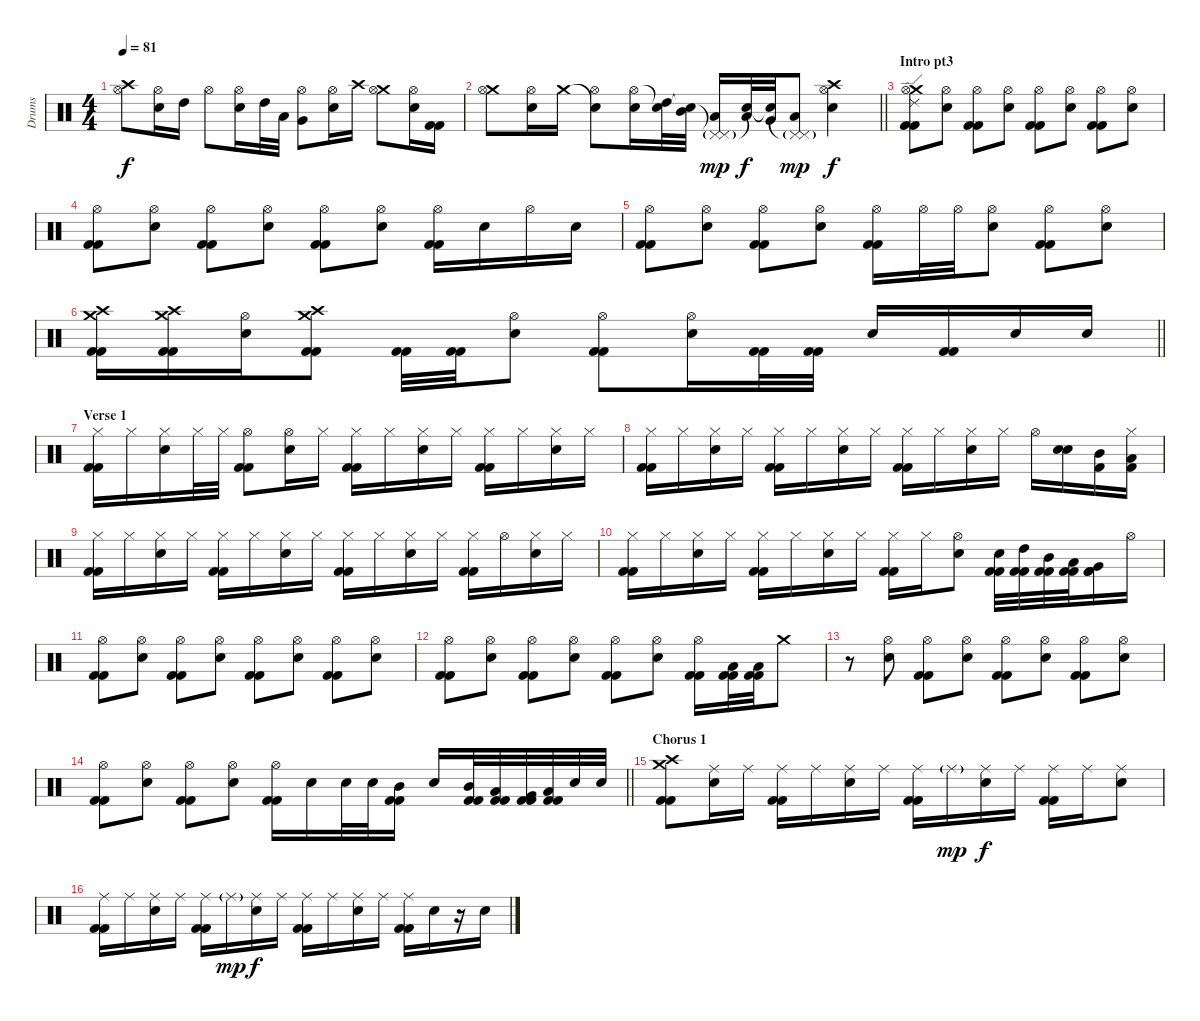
\track ("Drums" "Drums") {instrument percussion}
\staff {score}
\articulation defaults
\ts (4 4)
\tempo 81
\clef neutral
\ks c
("Crash high (hit)" "Hi-Hat (open)").8{dy f} ("Hi-Hat (open)" "Electric Snare (hit)").16 "High Tom (hit)".16 "Hi-Hat (open)".8 ("Hi-Hat (open)" "Electric Snare (hit)").16 "High Tom (hit)".32 "Low Tom (hit)".32 ("Hi-Hat (open)" "Very Low Tom (hit)").8 ("Hi-Hat (open)" "Electric Snare (hit)").16 "Crash high (hit)".16 ("Crash medium (hit)" "Hi-Hat (open)").8 ("Hi-Hat (open)" "Electric Snare (hit)").16 ("Kick (hit) 2" "Kick (hit) 2").16 |
\barLineRight lightlight
("Crash medium (hit)" "Hi-Hat (open)").8 ("Hi-Hat (open)" "Electric Snare (hit)").16 "Crash medium (hit)".16 ("Snare (hit)"{t} "Hi-Hat (open)").8 ("Hi-Hat (open)" "Electric Snare (hit)").16 ("Snare (hit)"{t} "High Tom (hit)").32 ("Snare (hit)"{t} "Mid Tom (hit)").32 ("Pedal Hi-Hat (hit)"{t} "Pedal Hi-Hat (hit)"{g} "Low Tom (hit)").16{dy mp} ("Snare (hit)"{t} "Low Tom (hit)").32{dy f} ("Snare (hit)"{t} "Very Low Tom (hit)").32 ("Pedal Hi-Hat (hit)"{t} "Pedal Hi-Hat (hit)"{g} "Low Floor Tom (hit)").8{dy mp} ("Hi-Hat (open)" "Crash high (hit)" "Electric Snare (hit)").4{dy f} |
\section ("" "Intro pt3")
("Crash medium (hit)" "Ride (edge) 2" "Hi-Hat (open)" "Kick (hit) 2" "Kick (hit) 2").8 ("Hi-Hat (open)" "Electric Snare (hit)").8 ("Hi-Hat (open)" "Kick (hit) 2" "Kick (hit) 2").8 ("Hi-Hat (open)" "Electric Snare (hit)").8 ("Hi-Hat (open)" "Kick (hit) 2" "Kick (hit) 2").8 ("Hi-Hat (open)" "Electric Snare (hit)").8 ("Hi-Hat (open)" "Kick (hit) 2" "Kick (hit) 2").8 ("Hi-Hat (open)" "Electric Snare (hit)").8 |
("Hi-Hat (open)" "Kick (hit) 2" "Kick (hit) 2").8 ("Hi-Hat (open)" "Electric Snare (hit)").8 ("Hi-Hat (open)" "Kick (hit) 2" "Kick (hit) 2").8 ("Hi-Hat (open)" "Electric Snare (hit)").8 ("Hi-Hat (open)" "Kick (hit) 2" "Kick (hit) 2").8 ("Hi-Hat (open)" "Electric Snare (hit)").8 ("Hi-Hat (open)" "Kick (hit) 2" "Kick (hit) 2").16 "Electric Snare (hit)".16 "Hi-Hat (open)".16 "Electric Snare (hit)".16 |
("Hi-Hat (open)" "Kick (hit) 2" "Kick (hit) 2").8 ("Hi-Hat (open)" "Electric Snare (hit)").8 ("Hi-Hat (open)" "Kick (hit) 2" "Kick (hit) 2").8 ("Hi-Hat (open)" "Electric Snare (hit)").8 ("Hi-Hat (open)" "Kick (hit) 2" "Kick (hit) 2").16 "Hi-Hat (open)".32 "Hi-Hat (open)".32 ("Hi-Hat (open)" "Electric Snare (hit)").8 ("Hi-Hat (open)" "Kick (hit) 2" "Kick (hit) 2").8 ("Hi-Hat (open)" "Electric Snare (hit)").8 |
\barLineRight lightlight
("Crash medium (hit)" "Crash high (hit)" "Kick (hit) 2" "Kick (hit) 2").16 ("Crash medium (hit)" "Crash high (hit)" "Kick (hit) 2" "Kick (hit) 2").16 ("Hi-Hat (open)" "Electric Snare (hit)").16 ("Crash medium (hit)" "Crash high (hit)" "Kick (hit) 2" "Kick (hit) 2").8 ("Kick (hit) 2" "Kick (hit) 2").32 ("Kick (hit) 2" "Kick (hit) 2").32 ("Hi-Hat (open)" "Electric Snare (hit)").8 ("Hi-Hat (open)" "Kick (hit) 2" "Kick (hit) 2").8 ("Hi-Hat (open)" "Electric Snare (hit)").16 ("Kick (hit) 2" "Kick (hit) 2").32 ("Kick (hit) 2" "Kick (hit) 2").32 "Electric Snare (hit)".16 ("Kick (hit) 2" "Kick (hit) 2").16 "Electric Snare (hit)".16 "Electric Snare (hit)".16 |
\section ("" "Verse 1")
("Hi-Hat (closed)" "Kick (hit) 2" "Kick (hit) 2").16 "Hi-Hat (closed)".16 ("Hi-Hat (closed)" "Electric Snare (hit)").16 "Hi-Hat (closed)".32 "Hi-Hat (closed)".32 ("Hi-Hat (open)" "Kick (hit) 2" "Kick (hit) 2").8 ("Hi-Hat (open)" "Electric Snare (hit)").16 "Hi-Hat (closed)".16 ("Hi-Hat (closed)" "Kick (hit) 2" "Kick (hit) 2").16 "Hi-Hat (closed)".16 ("Hi-Hat (closed)" "Electric Snare (hit)").16 "Hi-Hat (closed)".16 ("Hi-Hat (closed)" "Kick (hit) 2" "Kick (hit) 2").16 "Hi-Hat (closed)".16 ("Hi-Hat (closed)" "Electric Snare (hit)").16 "Hi-Hat (closed)".16 |
("Hi-Hat (closed)" "Kick (hit) 2" "Kick (hit) 2").16 "Hi-Hat (closed)".16 ("Hi-Hat (closed)" "Electric Snare (hit)").16 "Hi-Hat (closed)".16 ("Hi-Hat (closed)" "Kick (hit) 2" "Kick (hit) 2").16 "Hi-Hat (closed)".16 ("Hi-Hat (closed)" "Electric Snare (hit)").16 "Hi-Hat (closed)".16 ("Hi-Hat (closed)" "Kick (hit) 2" "Kick (hit) 2").16 "Hi-Hat (closed)".16 ("Hi-Hat (closed)" "Electric Snare (hit)").16 "Hi-Hat (closed)".16 "Hi-Hat (open)".16 ("Electric Snare (hit)" "Electric Snare (hit)").16 ("Mid Tom (hit)" "Kick (hit) 2").16 ("Low Tom (hit)" "Hi-Hat (closed)" "Kick (hit) 2").16 |
("Hi-Hat (closed)" "Kick (hit) 2" "Kick (hit) 2").16 "Hi-Hat (closed)".16 ("Hi-Hat (closed)" "Electric Snare (hit)").16 "Hi-Hat (closed)".16 ("Hi-Hat (closed)" "Kick (hit) 2" "Kick (hit) 2").16 "Hi-Hat (closed)".16 ("Hi-Hat (closed)" "Electric Snare (hit)").16 "Hi-Hat (closed)".16 ("Hi-Hat (closed)" "Kick (hit) 2" "Kick (hit) 2").16 "Hi-Hat (closed)".16 ("Hi-Hat (closed)" "Electric Snare (hit)").16 "Hi-Hat (closed)".16 ("Hi-Hat (closed)" "Kick (hit) 2" "Kick (hit) 2").16 "Hi-Hat (open)".16 ("Hi-Hat (closed)" "Electric Snare (hit)").16 "Hi-Hat (closed)".16 |
("Hi-Hat (closed)" "Kick (hit) 2" "Kick (hit) 2").16 "Hi-Hat (closed)".16 ("Hi-Hat (closed)" "Electric Snare (hit)").16 "Hi-Hat (closed)".16 ("Hi-Hat (closed)" "Kick (hit) 2" "Kick (hit) 2").16 "Hi-Hat (closed)".16 ("Hi-Hat (closed)" "Electric Snare (hit)").16 "Hi-Hat (closed)".16 ("Hi-Hat (closed)" "Kick (hit) 2" "Kick (hit) 2").16 "Hi-Hat (closed)".16 ("Hi-Hat (open)" "Electric Snare (hit)").8 ("Electric Snare (hit)" "Kick (hit) 2" "Kick (hit) 2").32 ("High Tom (hit)" "Kick (hit) 2" "Kick (hit) 2").32 ("Mid Tom (hit)" "Kick (hit) 2" "Kick (hit) 2").32 ("Low Tom (hit)" "Kick (hit) 2" "Kick (hit) 2").32 ("Very Low Tom (hit)" "Kick (hit) 2" "Kick (hit) 2").16 "Hi-Hat (open)".16 |
("Hi-Hat (open)" "Kick (hit) 2" "Kick (hit) 2").8 ("Hi-Hat (open)" "Electric Snare (hit)").8 ("Hi-Hat (open)" "Kick (hit) 2" "Kick (hit) 2").8 ("Hi-Hat (open)" "Electric Snare (hit)").8 ("Hi-Hat (open)" "Kick (hit) 2" "Kick (hit) 2").8 ("Hi-Hat (open)" "Electric Snare (hit)").8 ("Hi-Hat (open)" "Kick (hit) 2" "Kick (hit) 2").8 ("Hi-Hat (open)" "Electric Snare (hit)").8 |
("Hi-Hat (open)" "Kick (hit) 2" "Kick (hit) 2").8 ("Hi-Hat (open)" "Electric Snare (hit)").8 ("Hi-Hat (open)" "Kick (hit) 2" "Kick (hit) 2").8 ("Hi-Hat (open)" "Electric Snare (hit)").8 ("Hi-Hat (open)" "Kick (hit) 2" "Kick (hit) 2").8 ("Hi-Hat (open)" "Electric Snare (hit)").8 ("Hi-Hat (open)" "Kick (hit) 2" "Kick (hit) 2").16 ("Low Tom (hit)" "Kick (hit) 2" "Kick (hit) 2").32 ("Low Tom (hit)" "Kick (hit) 2" "Kick (hit) 2").32 "Crash medium (hit)".8 |
r.8 ("Hi-Hat (open)" "Electric Snare (hit)").8 ("Hi-Hat (open)" "Kick (hit) 2" "Kick (hit) 2").8 ("Hi-Hat (open)" "Electric Snare (hit)").8 ("Hi-Hat (open)" "Kick (hit) 2" "Kick (hit) 2").8 ("Hi-Hat (open)" "Electric Snare (hit)").8 ("Hi-Hat (open)" "Kick (hit) 2" "Kick (hit) 2").8 ("Hi-Hat (open)" "Electric Snare (hit)").8 |
\barLineRight lightlight
("Hi-Hat (open)" "Kick (hit) 2" "Kick (hit) 2").8 ("Hi-Hat (open)" "Electric Snare (hit)").8 ("Hi-Hat (open)" "Kick (hit) 2" "Kick (hit) 2").8 ("Hi-Hat (open)" "Electric Snare (hit)").8 ("Hi-Hat (open)" "Kick (hit) 2" "Kick (hit) 2").16 "Electric Snare (hit)".16 "Electric Snare (hit)".32 "Electric Snare (hit)".32 ("Mid Tom (hit)" "Kick (hit) 2" "Kick (hit) 2").16 "Electric Snare (hit)".16 ("Mid Tom (hit)" "Kick (hit) 2" "Kick (hit) 2").32 ("Low Tom (hit)" "Kick (hit) 2" "Kick (hit) 2").32 ("Very Low Tom (hit)" "Kick (hit) 2" "Kick (hit) 2").32 ("Low Floor Tom (hit)" "Kick (hit) 2" "Kick (hit) 2").32 "Electric Snare (hit)".32 "Electric Snare (hit)".32 |
\section ("" "Chorus 1")
("Crash medium (hit)" "Crash high (hit)" "Kick (hit) 2" "Kick (hit) 2").8 ("Ride (middle)" "Electric Snare (hit)").16 "Ride (middle)".16 ("Ride (middle)" "Kick (hit) 2" "Kick (hit) 2").16 "Ride (middle)".16 ("Ride (middle)" "Electric Snare (hit)").16 "Ride (middle)".16 ("Ride (middle)" "Kick (hit) 2" "Kick (hit) 2").16 "Ride (middle)"{g}.16{dy mp} ("Ride (middle)" "Electric Snare (hit)").16{dy f} "Ride (middle)".16 ("Ride (middle)" "Kick (hit) 2" "Kick (hit) 2").16 "Ride (middle)".16 ("Ride (middle)" "Electric Snare (hit)").8 |
("Ride (middle)" "Kick (hit) 2" "Kick (hit) 2").16 "Ride (middle)".16 ("Ride (middle)" "Electric Snare (hit)").16 "Ride (middle)".16 ("Ride (middle)" "Kick (hit) 2" "Kick (hit) 2").16 "Ride (middle)"{g}.16{dy mp} ("Ride (middle)" "Electric Snare (hit)").16{dy f} "Ride (middle)".16 ("Ride (middle)" "Kick (hit) 2" "Kick (hit) 2").16 "Ride (middle)".16 ("Ride (middle)" "Electric Snare (hit)").16 "Ride (middle)".16 ("Ride (middle)" "Kick (hit) 2" "Kick (hit) 2").16 "Electric Snare (hit)".16 r.16 "Electric Snare (hit)".16
